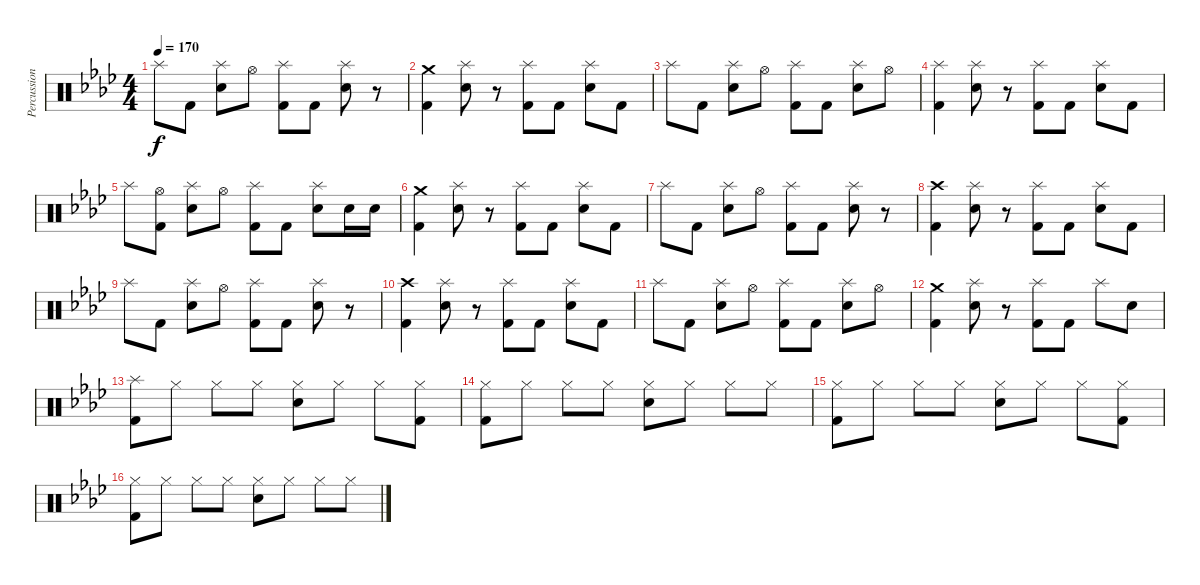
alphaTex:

\track ("Percussion" "Percussion") {instrument percussion}
\staff {score}
\articulation defaults
\ts (4 4)
\tempo 170
\clef neutral
\ks ab "Splash (hit)".8{dy f} "Kick (hit) 2".8
("Splash (hit)" "Electric Snare (hit)").8 "Hi-Hat (open)".8 ("Splash (hit)" "Kick (hit) 2").8 "Kick (hit) 2".8 ("Splash (hit)" "Electric Snare (hit)").8 r.8 |
("Crash medium (hit)" "Kick (hit) 2").4 ("Splash (hit)" "Electric Snare (hit)").8 r.8 ("Splash (hit)" "Kick (hit) 2").8 "Kick (hit) 2".8 ("Splash (hit)" "Electric Snare (hit)").8 "Kick (hit) 2".8 |
"Splash (hit)".8 "Kick (hit) 2".8 ("Splash (hit)" "Electric Snare (hit)").8 "Hi-Hat (open)".8 ("Splash (hit)" "Kick (hit) 2").8 "Kick (hit) 2".8 ("Splash (hit)" "Electric Snare (hit)").8 "Hi-Hat (open)".8 |
("Splash (hit)" "Kick (hit) 2").4 ("Splash (hit)" "Electric Snare (hit)").8 r.8 ("Splash (hit)" "Kick (hit) 2").8 "Kick (hit) 2".8 ("Splash (hit)" "Electric Snare (hit)").8 "Kick (hit) 2".8 |
"Splash (hit)".8 ("Hi-Hat (open)" "Kick (hit) 2").8 ("Splash (hit)" "Electric Snare (hit)").8 "Hi-Hat (open)".8 ("Splash (hit)" "Kick (hit) 2").8 "Kick (hit) 2".8 ("Splash (hit)" "Electric Snare (hit)").8 "Electric Snare (hit)".16 "Electric Snare (hit)".16 |
("Crash medium (hit)" "Kick (hit) 2").4 ("Splash (hit)" "Electric Snare (hit)").8 r.8 ("Splash (hit)" "Kick (hit) 2").8 "Kick (hit) 2".8 ("Splash (hit)" "Electric Snare (hit)").8 "Kick (hit) 2".8 |
"Splash (hit)".8 "Kick (hit) 2".8 ("Splash (hit)" "Electric Snare (hit)").8 "Hi-Hat (open)".8 ("Splash (hit)" "Kick (hit) 2").8 "Kick (hit) 2".8 ("Splash (hit)" "Electric Snare (hit)").8 r.8 |
("Crash high (hit)" "Kick (hit) 2").4 ("Splash (hit)" "Electric Snare (hit)").8 r.8 ("Splash (hit)" "Kick (hit) 2").8 "Kick (hit) 2".8 ("Splash (hit)" "Electric Snare (hit)").8 "Kick (hit) 2".8 |
"Splash (hit)".8 "Kick (hit) 2".8 ("Splash (hit)" "Electric Snare (hit)").8 "Hi-Hat (open)".8 ("Splash (hit)" "Kick (hit) 2").8 "Kick (hit) 2".8 ("Splash (hit)" "Electric Snare (hit)").8 r.8 |
("Crash high (hit)" "Kick (hit) 2").4 ("Splash (hit)" "Electric Snare (hit)").8 r.8 ("Splash (hit)" "Kick (hit) 2").8 "Kick (hit) 2".8 ("Splash (hit)" "Electric Snare (hit)").8 "Kick (hit) 2".8 |
"Splash (hit)".8 "Kick (hit) 2".8 ("Splash (hit)" "Electric Snare (hit)").8 "Hi-Hat (open)".8 ("Splash (hit)" "Kick (hit) 2").8 "Kick (hit) 2".8 ("Splash (hit)" "Electric Snare (hit)").8 "Hi-Hat (open)".8 |
("Crash medium (hit)" "Kick (hit) 2").4 ("Splash (hit)" "Electric Snare (hit)").8 r.8 ("Splash (hit)" "Kick (hit) 2").8 "Kick (hit) 2".8 "Splash (hit)".8 "Electric Snare (hit)".8 |
("Splash (hit)" "Kick (hit) 2").8 "Hi-Hat (closed)".8 "Hi-Hat (closed)".8 "Hi-Hat (closed)".8 ("Hi-Hat (closed)" "Electric Snare (hit)").8 "Hi-Hat (closed)".8 "Hi-Hat (closed)".8 ("Hi-Hat (closed)" "Kick (hit) 2").8 |
("Hi-Hat (closed)" "Kick (hit) 2").8 "Hi-Hat (closed)".8 "Hi-Hat (closed)".8 "Hi-Hat (closed)".8 ("Hi-Hat (closed)" "Electric Snare (hit)").8 "Hi-Hat (closed)".8 "Hi-Hat (closed)".8 "Hi-Hat (closed)".8 |
("Hi-Hat (closed)" "Kick (hit) 2").8 "Hi-Hat (closed)".8 "Hi-Hat (closed)".8 "Hi-Hat (closed)".8 ("Hi-Hat (closed)" "Electric Snare (hit)").8 "Hi-Hat (closed)".8 "Hi-Hat (closed)".8 ("Hi-Hat (closed)" "Kick (hit) 2").8 |
("Hi-Hat (closed)" "Kick (hit) 2").8 "Hi-Hat (closed)".8 "Hi-Hat (closed)".8 "Hi-Hat (closed)".8 ("Hi-Hat (closed)" "Electric Snare (hit)").8 "Hi-Hat (closed)".8 "Hi-Hat (closed)".8 "Hi-Hat (closed)".8
